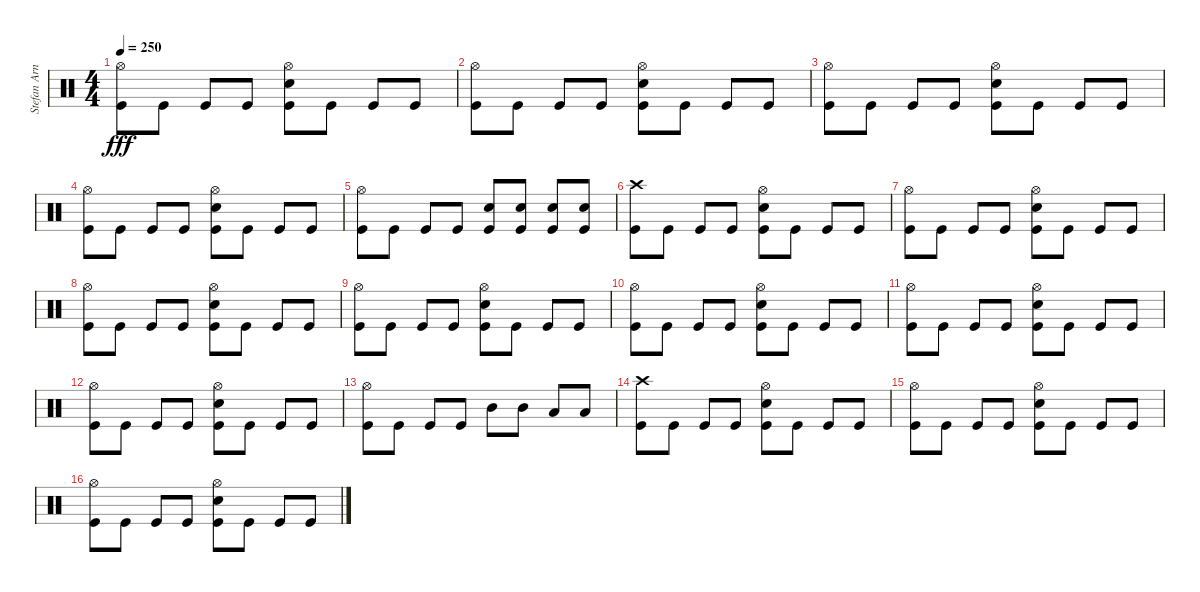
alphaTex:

\track ("Stefan Arnold (Batería)" "Stefan Arn") {instrument percussion}
\staff {score}
\articulation defaults
\ts (4 4)
\tempo 250
\clef neutral
\ks c
("Hi-Hat (open)" "Kick (hit)").8{dy fff} "Kick (hit)".8 "Kick (hit)".8 "Kick (hit)".8 ("Hi-Hat (open)" "Electric Snare (hit)" "Kick (hit)").8 "Kick (hit)".8 "Kick (hit)".8 "Kick (hit)".8 |
("Hi-Hat (open)" "Kick (hit)").8 "Kick (hit)".8 "Kick (hit)".8 "Kick (hit)".8 ("Hi-Hat (open)" "Electric Snare (hit)" "Kick (hit)").8 "Kick (hit)".8 "Kick (hit)".8 "Kick (hit)".8 |
("Hi-Hat (open)" "Kick (hit)").8 "Kick (hit)".8 "Kick (hit)".8 "Kick (hit)".8 ("Hi-Hat (open)" "Electric Snare (hit)" "Kick (hit)").8 "Kick (hit)".8 "Kick (hit)".8 "Kick (hit)".8 |
("Hi-Hat (open)" "Kick (hit)").8 "Kick (hit)".8 "Kick (hit)".8 "Kick (hit)".8 ("Hi-Hat (open)" "Electric Snare (hit)" "Kick (hit)").8 "Kick (hit)".8 "Kick (hit)".8 "Kick (hit)".8 |
("Hi-Hat (open)" "Kick (hit)").8 "Kick (hit)".8 "Kick (hit)".8 "Kick (hit)".8 ("Electric Snare (hit)" "Kick (hit)").8 ("Electric Snare (hit)" "Kick (hit)").8 ("Electric Snare (hit)" "Kick (hit)").8 ("Electric Snare (hit)" "Kick (hit)").8 |
("Crash high (hit)" "Kick (hit)").8 "Kick (hit)".8 "Kick (hit)".8 "Kick (hit)".8 ("Hi-Hat (open)" "Electric Snare (hit)" "Kick (hit)").8 "Kick (hit)".8 "Kick (hit)".8 "Kick (hit)".8 |
("Hi-Hat (open)" "Kick (hit)").8 "Kick (hit)".8 "Kick (hit)".8 "Kick (hit)".8 ("Hi-Hat (open)" "Electric Snare (hit)" "Kick (hit)").8 "Kick (hit)".8 "Kick (hit)".8 "Kick (hit)".8 |
("Hi-Hat (open)" "Kick (hit)").8 "Kick (hit)".8 "Kick (hit)".8 "Kick (hit)".8 ("Hi-Hat (open)" "Electric Snare (hit)" "Kick (hit)").8 "Kick (hit)".8 "Kick (hit)".8 "Kick (hit)".8 |
("Hi-Hat (open)" "Kick (hit)").8 "Kick (hit)".8 "Kick (hit)".8 "Kick (hit)".8 ("Hi-Hat (open)" "Electric Snare (hit)" "Kick (hit)").8 "Kick (hit)".8 "Kick (hit)".8 "Kick (hit)".8 |
("Hi-Hat (open)" "Kick (hit)").8 "Kick (hit)".8 "Kick (hit)".8 "Kick (hit)".8 ("Hi-Hat (open)" "Electric Snare (hit)" "Kick (hit)").8 "Kick (hit)".8 "Kick (hit)".8 "Kick (hit)".8 |
("Hi-Hat (open)" "Kick (hit)").8 "Kick (hit)".8 "Kick (hit)".8 "Kick (hit)".8 ("Hi-Hat (open)" "Electric Snare (hit)" "Kick (hit)").8 "Kick (hit)".8 "Kick (hit)".8 "Kick (hit)".8 |
("Hi-Hat (open)" "Kick (hit)").8 "Kick (hit)".8 "Kick (hit)".8 "Kick (hit)".8 ("Hi-Hat (open)" "Electric Snare (hit)" "Kick (hit)").8 "Kick (hit)".8 "Kick (hit)".8 "Kick (hit)".8 |
("Hi-Hat (open)" "Kick (hit)").8 "Kick (hit)".8 "Kick (hit)".8 "Kick (hit)".8 "Mid Tom (hit)".8 "Mid Tom (hit)".8 "Low Tom (hit)".8 "Low Tom (hit)".8 |
("Crash high (hit)" "Kick (hit)").8 "Kick (hit)".8 "Kick (hit)".8 "Kick (hit)".8 ("Hi-Hat (open)" "Electric Snare (hit)" "Kick (hit)").8 "Kick (hit)".8 "Kick (hit)".8 "Kick (hit)".8 |
("Hi-Hat (open)" "Kick (hit)").8 "Kick (hit)".8 "Kick (hit)".8 "Kick (hit)".8 ("Hi-Hat (open)" "Electric Snare (hit)" "Kick (hit)").8 "Kick (hit)".8 "Kick (hit)".8 "Kick (hit)".8 |
("Hi-Hat (open)" "Kick (hit)").8 "Kick (hit)".8 "Kick (hit)".8 "Kick (hit)".8 ("Hi-Hat (open)" "Electric Snare (hit)" "Kick (hit)").8 "Kick (hit)".8 "Kick (hit)".8 "Kick (hit)".8
